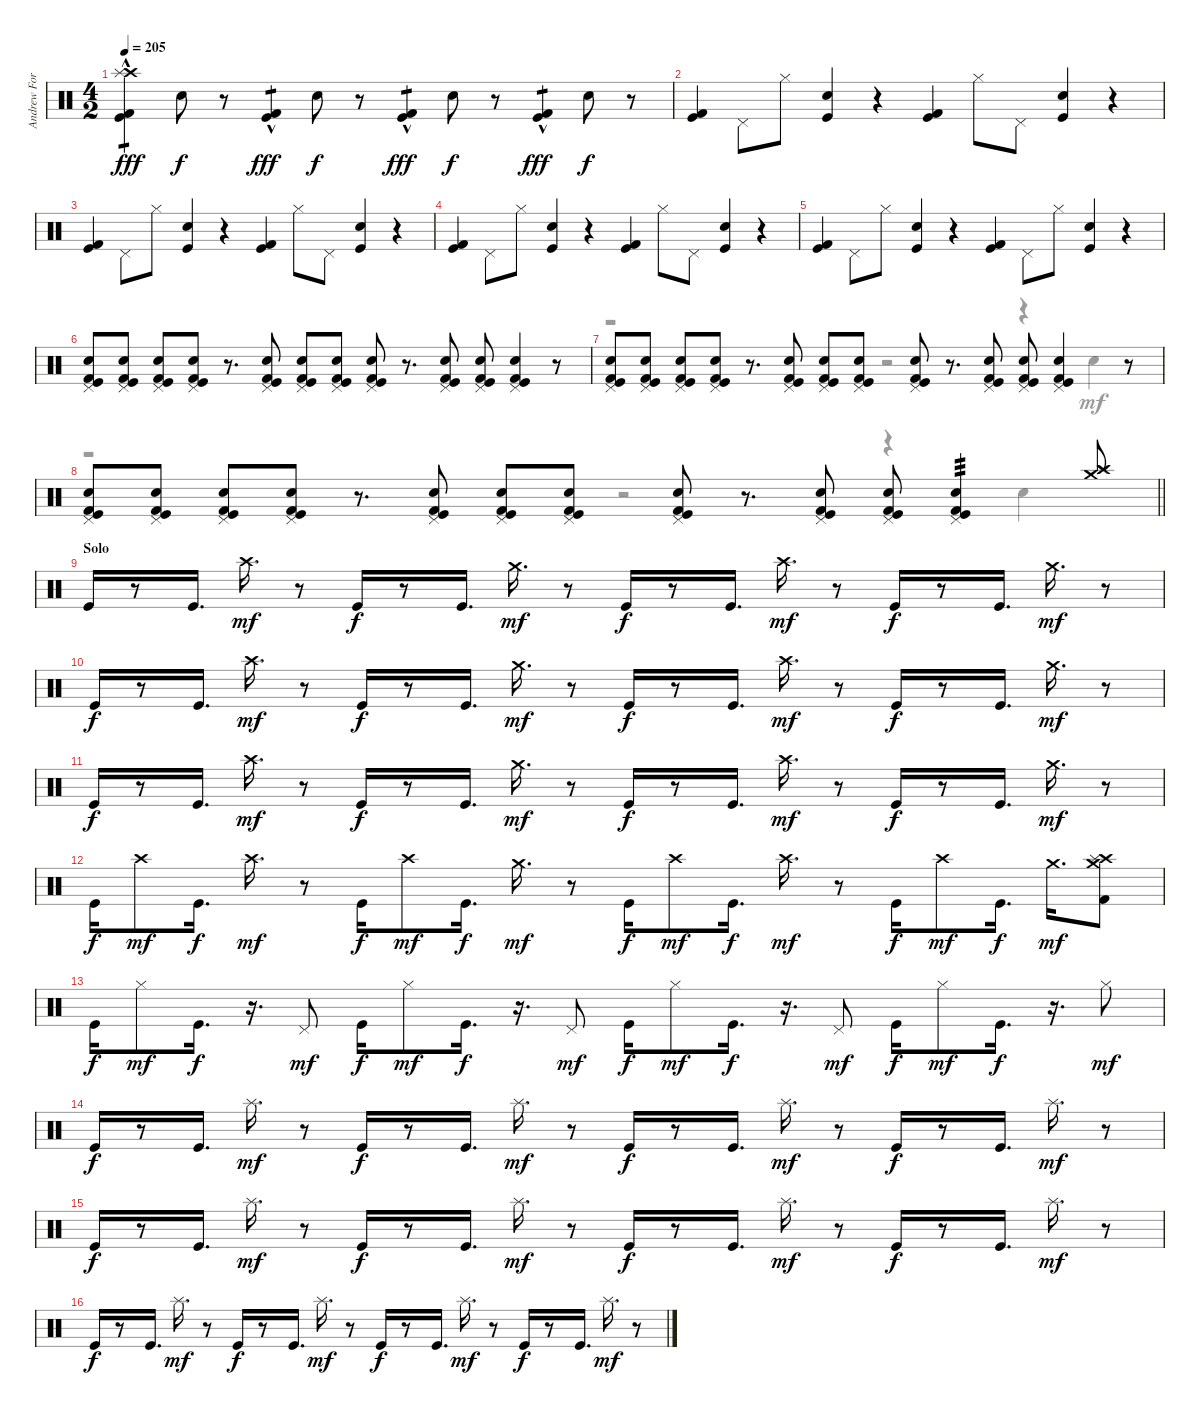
\track ("Andrew Forsman" "Andrew For") {instrument percussion}
\staff {score}
\articulation defaults
\voice
\ts (4 2)
\tempo 205
\clef neutral
\ks c
("Kick (hit) 2" "Kick (hit)"{hac} "Crash high (hit)" "Splash (hit)").4{tp 1 dy fff} "Snare (hit) 2".8{dy f} r.8 ("Kick (hit) 2" "Kick (hit)"{hac}).4{tp 1 dy fff} "Snare (hit) 2".8{dy f} r.8 ("Kick (hit) 2" "Kick (hit)"{hac}).4{tp 1 dy fff} "Snare (hit) 2".8{dy f} r.8 ("Kick (hit) 2" "Kick (hit)"{hac}).4{tp 1 dy fff} "Snare (hit) 2".8{dy f} r.8 |
("Kick (hit)" "Kick (hit) 2").4 "Pedal Hi-Hat (hit)".8 "Hi-Hat (closed)".8 ("Kick (hit)" "Snare (hit) 2").4 r.4 ("Kick (hit)" "Kick (hit) 2").4 "Hi-Hat (closed)".8 "Pedal Hi-Hat (hit)".8 ("Kick (hit)" "Snare (hit) 2").4 r.4 |
("Kick (hit)" "Kick (hit) 2").4 "Pedal Hi-Hat (hit)".8 "Hi-Hat (closed)".8 ("Kick (hit)" "Snare (hit) 2").4 r.4 ("Kick (hit)" "Kick (hit) 2").4 "Hi-Hat (closed)".8 "Pedal Hi-Hat (hit)".8 ("Kick (hit)" "Snare (hit) 2").4 r.4 |
("Kick (hit)" "Kick (hit) 2").4 "Pedal Hi-Hat (hit)".8 "Hi-Hat (closed)".8 ("Kick (hit)" "Snare (hit) 2").4 r.4 ("Kick (hit)" "Kick (hit) 2").4 "Hi-Hat (closed)".8 "Pedal Hi-Hat (hit)".8 ("Kick (hit)" "Snare (hit) 2").4 r.4 |
("Kick (hit)" "Kick (hit) 2").4 "Pedal Hi-Hat (hit)".8 "Hi-Hat (closed)".8 ("Kick (hit)" "Snare (hit) 2").4 r.4 ("Kick (hit)" "Kick (hit) 2").4 "Pedal Hi-Hat (hit)".8 "Hi-Hat (closed)".8 ("Kick (hit)" "Snare (hit) 2").4 r.4 |
("Kick (hit)" "Kick (hit) 2" "Snare (hit) 2" "Pedal Hi-Hat (hit)").8 ("Kick (hit)" "Kick (hit) 2" "Snare (hit) 2" "Pedal Hi-Hat (hit)").8 ("Kick (hit)" "Kick (hit) 2" "Snare (hit) 2" "Pedal Hi-Hat (hit)").8 ("Kick (hit)" "Kick (hit) 2" "Snare (hit) 2" "Pedal Hi-Hat (hit)").8 r.8{d} ("Kick (hit)" "Kick (hit) 2" "Snare (hit) 2" "Pedal Hi-Hat (hit)").8 ("Kick (hit)" "Kick (hit) 2" "Snare (hit) 2" "Pedal Hi-Hat (hit)").8 ("Kick (hit)" "Kick (hit) 2" "Snare (hit) 2" "Pedal Hi-Hat (hit)").8 ("Kick (hit)" "Kick (hit) 2" "Snare (hit) 2" "Pedal Hi-Hat (hit)").8 r.8{d} ("Kick (hit)" "Kick (hit) 2" "Snare (hit) 2" "Pedal Hi-Hat (hit)").8 ("Kick (hit)" "Kick (hit) 2" "Snare (hit) 2" "Pedal Hi-Hat (hit)").8 ("Kick (hit)" "Kick (hit) 2" "Snare (hit) 2" "Pedal Hi-Hat (hit)").4 r.8 |
("Kick (hit)" "Kick (hit) 2" "Snare (hit) 2" "Pedal Hi-Hat (hit)").8 ("Kick (hit)" "Kick (hit) 2" "Snare (hit) 2" "Pedal Hi-Hat (hit)").8 ("Kick (hit)" "Kick (hit) 2" "Snare (hit) 2" "Pedal Hi-Hat (hit)").8 ("Kick (hit)" "Kick (hit) 2" "Snare (hit) 2" "Pedal Hi-Hat (hit)").8 r.8{d} ("Kick (hit)" "Kick (hit) 2" "Snare (hit) 2" "Pedal Hi-Hat (hit)").8 ("Kick (hit)" "Kick (hit) 2" "Snare (hit) 2" "Pedal Hi-Hat (hit)").8 ("Kick (hit)" "Kick (hit) 2" "Snare (hit) 2" "Pedal Hi-Hat (hit)").8 ("Kick (hit)" "Kick (hit) 2" "Snare (hit) 2" "Pedal Hi-Hat (hit)").8 r.8{d} ("Kick (hit)" "Kick (hit) 2" "Snare (hit) 2" "Pedal Hi-Hat (hit)").8 ("Kick (hit)" "Kick (hit) 2" "Snare (hit) 2" "Pedal Hi-Hat (hit)").8 ("Kick (hit)" "Kick (hit) 2" "Snare (hit) 2" "Pedal Hi-Hat (hit)").4 r.8 |
\barLineRight lightlight
("Kick (hit)" "Kick (hit) 2" "Snare (hit) 2" "Pedal Hi-Hat (hit)").8 ("Kick (hit)" "Kick (hit) 2" "Snare (hit) 2" "Pedal Hi-Hat (hit)").8 ("Kick (hit)" "Kick (hit) 2" "Snare (hit) 2" "Pedal Hi-Hat (hit)").8 ("Kick (hit)" "Kick (hit) 2" "Snare (hit) 2" "Pedal Hi-Hat (hit)").8 r.8{d} ("Kick (hit)" "Kick (hit) 2" "Snare (hit) 2" "Pedal Hi-Hat (hit)").8 ("Kick (hit)" "Kick (hit) 2" "Snare (hit) 2" "Pedal Hi-Hat (hit)").8 ("Kick (hit)" "Kick (hit) 2" "Snare (hit) 2" "Pedal Hi-Hat (hit)").8 ("Kick (hit)" "Kick (hit) 2" "Snare (hit) 2" "Pedal Hi-Hat (hit)").8 r.8{d} ("Kick (hit)" "Kick (hit) 2" "Snare (hit) 2" "Pedal Hi-Hat (hit)").8 ("Kick (hit)" "Kick (hit) 2" "Snare (hit) 2" "Pedal Hi-Hat (hit)").8 ("Kick (hit)" "Kick (hit) 2" "Snare (hit) 2" "Pedal Hi-Hat (hit)").4{tp 3} ("Crash medium (hit)" "Splash (hit)" "Crash high (hit)").8 |
\section ("" "Solo")
"Kick (hit)".16 r.8 "Kick (hit)".16{d} "Crash high (hit)".16{d dy mf} r.8 "Kick (hit)".16{dy f} r.8 "Kick (hit)".16{d} "Crash medium (hit)".16{d dy mf} r.8 "Kick (hit)".16{dy f} r.8 "Kick (hit)".16{d} "Crash high (hit)".16{d dy mf} r.8 "Kick (hit)".16{dy f} r.8 "Kick (hit)".16{d} "Crash medium (hit)".16{d dy mf} r.8 |
"Kick (hit)".16{dy f} r.8 "Kick (hit)".16{d} "Crash high (hit)".16{d dy mf} r.8 "Kick (hit)".16{dy f} r.8 "Kick (hit)".16{d} "Crash medium (hit)".16{d dy mf} r.8 "Kick (hit)".16{dy f} r.8 "Kick (hit)".16{d} "Crash high (hit)".16{d dy mf} r.8 "Kick (hit)".16{dy f} r.8 "Kick (hit)".16{d} "Crash medium (hit)".16{d dy mf} r.8 |
"Kick (hit)".16{dy f} r.8 "Kick (hit)".16{d} "Crash high (hit)".16{d dy mf} r.8 "Kick (hit)".16{dy f} r.8 "Kick (hit)".16{d} "Crash medium (hit)".16{d dy mf} r.8 "Kick (hit)".16{dy f} r.8 "Kick (hit)".16{d} "Crash high (hit)".16{d dy mf} r.8 "Kick (hit)".16{dy f} r.8 "Kick (hit)".16{d} "Crash medium (hit)".16{d dy mf} r.8 |
"Kick (hit)".16{dy f} "Crash high (hit)".8{dy mf} "Kick (hit)".16{d dy f} "Crash high (hit)".16{d dy mf} r.8 "Kick (hit)".16{dy f} "Crash high (hit)".8{dy mf} "Kick (hit)".16{d dy f} "Crash medium (hit)".16{d dy mf} r.8 "Kick (hit)".16{dy f} "Crash high (hit)".8{dy mf} "Kick (hit)".16{d dy f} "Crash high (hit)".16{d dy mf} r.8 "Kick (hit)".16{dy f} "Crash high (hit)".8{dy mf} "Kick (hit)".16{d dy f} "Crash medium (hit)".16{d dy mf} ("Crash high (hit)" "Kick (hit) 2" "Crash medium (hit)" "Splash (hit)").8 |
"Kick (hit)".16{dy f} "Hi-Hat (closed)".8{dy mf} "Kick (hit)".16{d dy f} r.16{d} "Pedal Hi-Hat (hit)".8{dy mf} "Kick (hit)".16{dy f} "Hi-Hat (closed)".8{dy mf} "Kick (hit)".16{d dy f} r.16{d} "Pedal Hi-Hat (hit)".8{dy mf} "Kick (hit)".16{dy f} "Hi-Hat (closed)".8{dy mf} "Kick (hit)".16{d dy f} r.16{d} "Pedal Hi-Hat (hit)".8{dy mf} "Kick (hit)".16{dy f} "Hi-Hat (closed)".8{dy mf} "Kick (hit)".16{d dy f} r.16{d} "Hi-Hat (closed)".8{dy mf} |
"Kick (hit)".16{dy f} r.8 "Kick (hit)".16{d} "Splash (hit)".16{d dy mf} r.8 "Kick (hit)".16{dy f} r.8 "Kick (hit)".16{d} "Splash (hit)".16{d dy mf} r.8 "Kick (hit)".16{dy f} r.8 "Kick (hit)".16{d} "Splash (hit)".16{d dy mf} r.8 "Kick (hit)".16{dy f} r.8 "Kick (hit)".16{d} "Splash (hit)".16{d dy mf} r.8 |
"Kick (hit)".16{dy f} r.8 "Kick (hit)".16{d} "Splash (hit)".16{d dy mf} r.8 "Kick (hit)".16{dy f} r.8 "Kick (hit)".16{d} "Splash (hit)".16{d dy mf} r.8 "Kick (hit)".16{dy f} r.8 "Kick (hit)".16{d} "Splash (hit)".16{d dy mf} r.8 "Kick (hit)".16{dy f} r.8 "Kick (hit)".16{d} "Splash (hit)".16{d dy mf} r.8 |
"Kick (hit)".16{dy f} r.8 "Kick (hit)".16{d} "Splash (hit)".16{d dy mf} r.8 "Kick (hit)".16{dy f} r.8 "Kick (hit)".16{d} "Splash (hit)".16{d dy mf} r.8 "Kick (hit)".16{dy f} r.8 "Kick (hit)".16{d} "Splash (hit)".16{d dy mf} r.8 "Kick (hit)".16{dy f} r.8 "Kick (hit)".16{d} "Splash (hit)".16{d dy mf} r.8
\voice
\clef neutral
\ottava regular
\simile none
\ks c
|
|
|
|
|
|
r.1 r.2 r.4 "Snare (hit) 2".4 |
\barLineRight lightlight
r.1 r.2 r.4 "Snare (hit) 2".4 |
|
|
|
|
|
|
|
